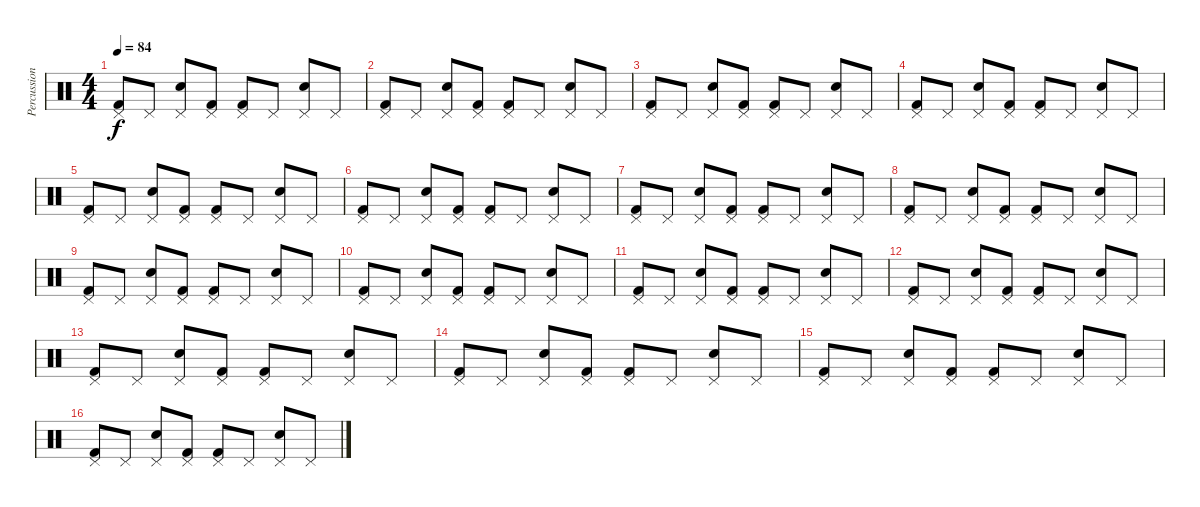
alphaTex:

\track ("Percussion" "Percussion") {instrument percussion}
\staff {score}
\articulation defaults
\ts (4 4)
\tempo 84
\clef neutral
\ks c
("Pedal Hi-Hat (hit)" "Kick (hit) 2").8{dy f} "Pedal Hi-Hat (hit)".8 ("Pedal Hi-Hat (hit)" "Snare (hit) 2").8 ("Pedal Hi-Hat (hit)" "Kick (hit) 2").8 ("Pedal Hi-Hat (hit)" "Kick (hit) 2").8 "Pedal Hi-Hat (hit)".8 ("Pedal Hi-Hat (hit)" "Snare (hit) 2").8 "Pedal Hi-Hat (hit)".8 |
("Pedal Hi-Hat (hit)" "Kick (hit) 2").8 "Pedal Hi-Hat (hit)".8 ("Pedal Hi-Hat (hit)" "Snare (hit) 2").8 ("Pedal Hi-Hat (hit)" "Kick (hit) 2").8 ("Pedal Hi-Hat (hit)" "Kick (hit) 2").8 "Pedal Hi-Hat (hit)".8 ("Pedal Hi-Hat (hit)" "Snare (hit) 2").8 "Pedal Hi-Hat (hit)".8 |
("Pedal Hi-Hat (hit)" "Kick (hit) 2").8 "Pedal Hi-Hat (hit)".8 ("Pedal Hi-Hat (hit)" "Snare (hit) 2").8 ("Pedal Hi-Hat (hit)" "Kick (hit) 2").8 ("Pedal Hi-Hat (hit)" "Kick (hit) 2").8 "Pedal Hi-Hat (hit)".8 ("Pedal Hi-Hat (hit)" "Snare (hit) 2").8 "Pedal Hi-Hat (hit)".8 |
("Pedal Hi-Hat (hit)" "Kick (hit) 2").8 "Pedal Hi-Hat (hit)".8 ("Pedal Hi-Hat (hit)" "Snare (hit) 2").8 ("Pedal Hi-Hat (hit)" "Kick (hit) 2").8 ("Pedal Hi-Hat (hit)" "Kick (hit) 2").8 "Pedal Hi-Hat (hit)".8 ("Pedal Hi-Hat (hit)" "Snare (hit) 2").8 "Pedal Hi-Hat (hit)".8 |
("Pedal Hi-Hat (hit)" "Kick (hit) 2").8 "Pedal Hi-Hat (hit)".8 ("Pedal Hi-Hat (hit)" "Snare (hit) 2").8 ("Pedal Hi-Hat (hit)" "Kick (hit) 2").8 ("Pedal Hi-Hat (hit)" "Kick (hit) 2").8 "Pedal Hi-Hat (hit)".8 ("Pedal Hi-Hat (hit)" "Snare (hit) 2").8 "Pedal Hi-Hat (hit)".8 |
("Pedal Hi-Hat (hit)" "Kick (hit) 2").8 "Pedal Hi-Hat (hit)".8 ("Pedal Hi-Hat (hit)" "Snare (hit) 2").8 ("Pedal Hi-Hat (hit)" "Kick (hit) 2").8 ("Pedal Hi-Hat (hit)" "Kick (hit) 2").8 "Pedal Hi-Hat (hit)".8 ("Pedal Hi-Hat (hit)" "Snare (hit) 2").8 "Pedal Hi-Hat (hit)".8 |
("Pedal Hi-Hat (hit)" "Kick (hit) 2").8 "Pedal Hi-Hat (hit)".8 ("Pedal Hi-Hat (hit)" "Snare (hit) 2").8 ("Pedal Hi-Hat (hit)" "Kick (hit) 2").8 ("Pedal Hi-Hat (hit)" "Kick (hit) 2").8 "Pedal Hi-Hat (hit)".8 ("Pedal Hi-Hat (hit)" "Snare (hit) 2").8 "Pedal Hi-Hat (hit)".8 |
("Pedal Hi-Hat (hit)" "Kick (hit) 2").8 "Pedal Hi-Hat (hit)".8 ("Pedal Hi-Hat (hit)" "Snare (hit) 2").8 ("Pedal Hi-Hat (hit)" "Kick (hit) 2").8 ("Pedal Hi-Hat (hit)" "Kick (hit) 2").8 "Pedal Hi-Hat (hit)".8 ("Pedal Hi-Hat (hit)" "Snare (hit) 2").8 "Pedal Hi-Hat (hit)".8 |
("Pedal Hi-Hat (hit)" "Kick (hit) 2").8 "Pedal Hi-Hat (hit)".8 ("Pedal Hi-Hat (hit)" "Snare (hit) 2").8 ("Pedal Hi-Hat (hit)" "Kick (hit) 2").8 ("Pedal Hi-Hat (hit)" "Kick (hit) 2").8 "Pedal Hi-Hat (hit)".8 ("Pedal Hi-Hat (hit)" "Snare (hit) 2").8 "Pedal Hi-Hat (hit)".8 |
("Pedal Hi-Hat (hit)" "Kick (hit) 2").8 "Pedal Hi-Hat (hit)".8 ("Pedal Hi-Hat (hit)" "Snare (hit) 2").8 ("Pedal Hi-Hat (hit)" "Kick (hit) 2").8 ("Pedal Hi-Hat (hit)" "Kick (hit) 2").8 "Pedal Hi-Hat (hit)".8 ("Pedal Hi-Hat (hit)" "Snare (hit) 2").8 "Pedal Hi-Hat (hit)".8 |
("Pedal Hi-Hat (hit)" "Kick (hit) 2").8 "Pedal Hi-Hat (hit)".8 ("Pedal Hi-Hat (hit)" "Snare (hit) 2").8 ("Pedal Hi-Hat (hit)" "Kick (hit) 2").8 ("Pedal Hi-Hat (hit)" "Kick (hit) 2").8 "Pedal Hi-Hat (hit)".8 ("Pedal Hi-Hat (hit)" "Snare (hit) 2").8 "Pedal Hi-Hat (hit)".8 |
("Pedal Hi-Hat (hit)" "Kick (hit) 2").8 "Pedal Hi-Hat (hit)".8 ("Pedal Hi-Hat (hit)" "Snare (hit) 2").8 ("Pedal Hi-Hat (hit)" "Kick (hit) 2").8 ("Pedal Hi-Hat (hit)" "Kick (hit) 2").8 "Pedal Hi-Hat (hit)".8 ("Pedal Hi-Hat (hit)" "Snare (hit) 2").8 "Pedal Hi-Hat (hit)".8 |
("Pedal Hi-Hat (hit)" "Kick (hit) 2").8 "Pedal Hi-Hat (hit)".8 ("Pedal Hi-Hat (hit)" "Snare (hit) 2").8 ("Pedal Hi-Hat (hit)" "Kick (hit) 2").8 ("Pedal Hi-Hat (hit)" "Kick (hit) 2").8 "Pedal Hi-Hat (hit)".8 ("Pedal Hi-Hat (hit)" "Snare (hit) 2").8 "Pedal Hi-Hat (hit)".8 |
("Pedal Hi-Hat (hit)" "Kick (hit) 2").8 "Pedal Hi-Hat (hit)".8 ("Pedal Hi-Hat (hit)" "Snare (hit) 2").8 ("Pedal Hi-Hat (hit)" "Kick (hit) 2").8 ("Pedal Hi-Hat (hit)" "Kick (hit) 2").8 "Pedal Hi-Hat (hit)".8 ("Pedal Hi-Hat (hit)" "Snare (hit) 2").8 "Pedal Hi-Hat (hit)".8 |
("Pedal Hi-Hat (hit)" "Kick (hit) 2").8 "Pedal Hi-Hat (hit)".8 ("Pedal Hi-Hat (hit)" "Snare (hit) 2").8 ("Pedal Hi-Hat (hit)" "Kick (hit) 2").8 ("Pedal Hi-Hat (hit)" "Kick (hit) 2").8 "Pedal Hi-Hat (hit)".8 ("Pedal Hi-Hat (hit)" "Snare (hit) 2").8 "Pedal Hi-Hat (hit)".8 |
("Pedal Hi-Hat (hit)" "Kick (hit) 2").8 "Pedal Hi-Hat (hit)".8 ("Pedal Hi-Hat (hit)" "Snare (hit) 2").8 ("Pedal Hi-Hat (hit)" "Kick (hit) 2").8 ("Pedal Hi-Hat (hit)" "Kick (hit) 2").8 "Pedal Hi-Hat (hit)".8 ("Pedal Hi-Hat (hit)" "Snare (hit) 2").8 "Pedal Hi-Hat (hit)".8
